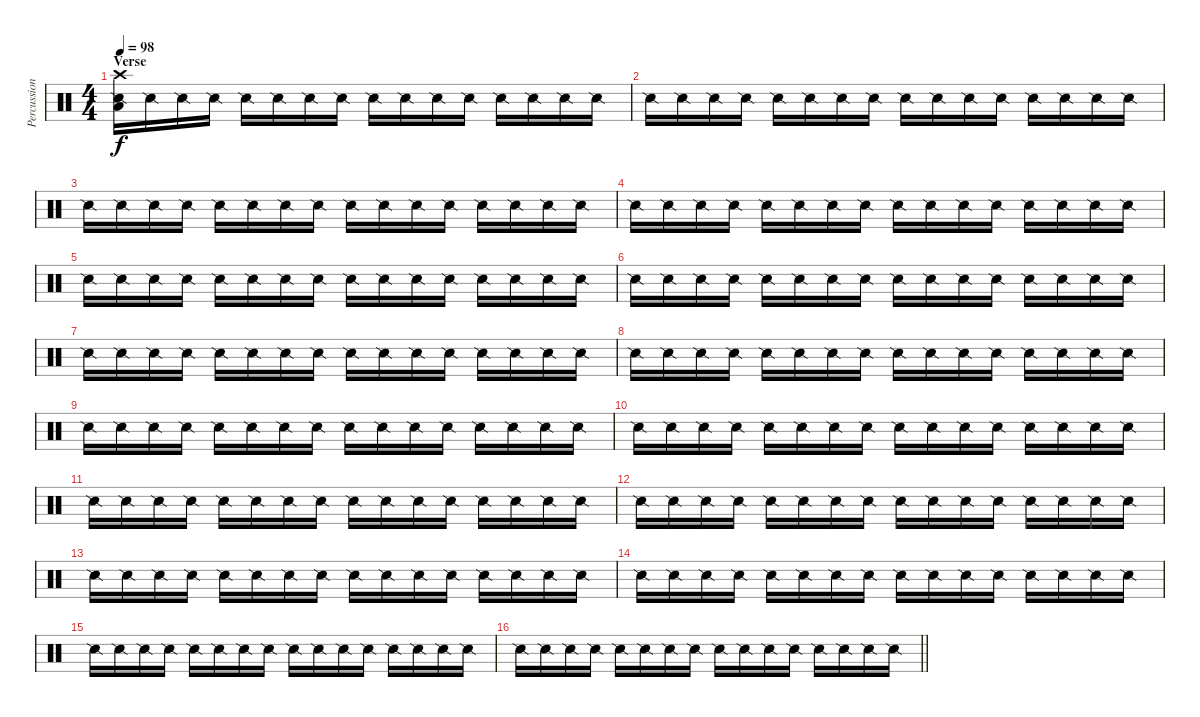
\track ("Percussion" "Percussion") {instrument percussion}
\staff {score}
\articulation defaults
\ts (4 4)
\section ("" "Verse")
\tempo 98
\clef neutral
\ks c
("Crash high (hit)" "Low Floor Tom (hit)" "Snare (side stick) 2").16{dy f} "Snare (side stick) 2".16 "Snare (side stick) 2".16 "Snare (side stick) 2".16 "Snare (side stick) 2".16 "Snare (side stick) 2".16 "Snare (side stick) 2".16 "Snare (side stick) 2".16 "Snare (side stick) 2".16 "Snare (side stick) 2".16 "Snare (side stick) 2".16 "Snare (side stick) 2".16 "Snare (side stick) 2".16 "Snare (side stick) 2".16 "Snare (side stick) 2".16 "Snare (side stick) 2".16 |
"Snare (side stick) 2".16 "Snare (side stick) 2".16 "Snare (side stick) 2".16 "Snare (side stick) 2".16 "Snare (side stick) 2".16 "Snare (side stick) 2".16 "Snare (side stick) 2".16 "Snare (side stick) 2".16 "Snare (side stick) 2".16 "Snare (side stick) 2".16 "Snare (side stick) 2".16 "Snare (side stick) 2".16 "Snare (side stick) 2".16 "Snare (side stick) 2".16 "Snare (side stick) 2".16 "Snare (side stick) 2".16 |
"Snare (side stick) 2".16 "Snare (side stick) 2".16 "Snare (side stick) 2".16 "Snare (side stick) 2".16 "Snare (side stick) 2".16 "Snare (side stick) 2".16 "Snare (side stick) 2".16 "Snare (side stick) 2".16 "Snare (side stick) 2".16 "Snare (side stick) 2".16 "Snare (side stick) 2".16 "Snare (side stick) 2".16 "Snare (side stick) 2".16 "Snare (side stick) 2".16 "Snare (side stick) 2".16 "Snare (side stick) 2".16 |
"Snare (side stick) 2".16 "Snare (side stick) 2".16 "Snare (side stick) 2".16 "Snare (side stick) 2".16 "Snare (side stick) 2".16 "Snare (side stick) 2".16 "Snare (side stick) 2".16 "Snare (side stick) 2".16 "Snare (side stick) 2".16 "Snare (side stick) 2".16 "Snare (side stick) 2".16 "Snare (side stick) 2".16 "Snare (side stick) 2".16 "Snare (side stick) 2".16 "Snare (side stick) 2".16 "Snare (side stick) 2".16 |
"Snare (side stick) 2".16 "Snare (side stick) 2".16 "Snare (side stick) 2".16 "Snare (side stick) 2".16 "Snare (side stick) 2".16 "Snare (side stick) 2".16 "Snare (side stick) 2".16 "Snare (side stick) 2".16 "Snare (side stick) 2".16 "Snare (side stick) 2".16 "Snare (side stick) 2".16 "Snare (side stick) 2".16 "Snare (side stick) 2".16 "Snare (side stick) 2".16 "Snare (side stick) 2".16 "Snare (side stick) 2".16 |
"Snare (side stick) 2".16 "Snare (side stick) 2".16 "Snare (side stick) 2".16 "Snare (side stick) 2".16 "Snare (side stick) 2".16 "Snare (side stick) 2".16 "Snare (side stick) 2".16 "Snare (side stick) 2".16 "Snare (side stick) 2".16 "Snare (side stick) 2".16 "Snare (side stick) 2".16 "Snare (side stick) 2".16 "Snare (side stick) 2".16 "Snare (side stick) 2".16 "Snare (side stick) 2".16 "Snare (side stick) 2".16 |
"Snare (side stick) 2".16 "Snare (side stick) 2".16 "Snare (side stick) 2".16 "Snare (side stick) 2".16 "Snare (side stick) 2".16 "Snare (side stick) 2".16 "Snare (side stick) 2".16 "Snare (side stick) 2".16 "Snare (side stick) 2".16 "Snare (side stick) 2".16 "Snare (side stick) 2".16 "Snare (side stick) 2".16 "Snare (side stick) 2".16 "Snare (side stick) 2".16 "Snare (side stick) 2".16 "Snare (side stick) 2".16 |
"Snare (side stick) 2".16 "Snare (side stick) 2".16 "Snare (side stick) 2".16 "Snare (side stick) 2".16 "Snare (side stick) 2".16 "Snare (side stick) 2".16 "Snare (side stick) 2".16 "Snare (side stick) 2".16 "Snare (side stick) 2".16 "Snare (side stick) 2".16 "Snare (side stick) 2".16 "Snare (side stick) 2".16 "Snare (side stick) 2".16 "Snare (side stick) 2".16 "Snare (side stick) 2".16 "Snare (side stick) 2".16 |
"Snare (side stick) 2".16 "Snare (side stick) 2".16 "Snare (side stick) 2".16 "Snare (side stick) 2".16 "Snare (side stick) 2".16 "Snare (side stick) 2".16 "Snare (side stick) 2".16 "Snare (side stick) 2".16 "Snare (side stick) 2".16 "Snare (side stick) 2".16 "Snare (side stick) 2".16 "Snare (side stick) 2".16 "Snare (side stick) 2".16 "Snare (side stick) 2".16 "Snare (side stick) 2".16 "Snare (side stick) 2".16 |
"Snare (side stick) 2".16 "Snare (side stick) 2".16 "Snare (side stick) 2".16 "Snare (side stick) 2".16 "Snare (side stick) 2".16 "Snare (side stick) 2".16 "Snare (side stick) 2".16 "Snare (side stick) 2".16 "Snare (side stick) 2".16 "Snare (side stick) 2".16 "Snare (side stick) 2".16 "Snare (side stick) 2".16 "Snare (side stick) 2".16 "Snare (side stick) 2".16 "Snare (side stick) 2".16 "Snare (side stick) 2".16 |
"Snare (side stick) 2".16 "Snare (side stick) 2".16 "Snare (side stick) 2".16 "Snare (side stick) 2".16 "Snare (side stick) 2".16 "Snare (side stick) 2".16 "Snare (side stick) 2".16 "Snare (side stick) 2".16 "Snare (side stick) 2".16 "Snare (side stick) 2".16 "Snare (side stick) 2".16 "Snare (side stick) 2".16 "Snare (side stick) 2".16 "Snare (side stick) 2".16 "Snare (side stick) 2".16 "Snare (side stick) 2".16 |
"Snare (side stick) 2".16 "Snare (side stick) 2".16 "Snare (side stick) 2".16 "Snare (side stick) 2".16 "Snare (side stick) 2".16 "Snare (side stick) 2".16 "Snare (side stick) 2".16 "Snare (side stick) 2".16 "Snare (side stick) 2".16 "Snare (side stick) 2".16 "Snare (side stick) 2".16 "Snare (side stick) 2".16 "Snare (side stick) 2".16 "Snare (side stick) 2".16 "Snare (side stick) 2".16 "Snare (side stick) 2".16 |
"Snare (side stick) 2".16 "Snare (side stick) 2".16 "Snare (side stick) 2".16 "Snare (side stick) 2".16 "Snare (side stick) 2".16 "Snare (side stick) 2".16 "Snare (side stick) 2".16 "Snare (side stick) 2".16 "Snare (side stick) 2".16 "Snare (side stick) 2".16 "Snare (side stick) 2".16 "Snare (side stick) 2".16 "Snare (side stick) 2".16 "Snare (side stick) 2".16 "Snare (side stick) 2".16 "Snare (side stick) 2".16 |
"Snare (side stick) 2".16 "Snare (side stick) 2".16 "Snare (side stick) 2".16 "Snare (side stick) 2".16 "Snare (side stick) 2".16 "Snare (side stick) 2".16 "Snare (side stick) 2".16 "Snare (side stick) 2".16 "Snare (side stick) 2".16 "Snare (side stick) 2".16 "Snare (side stick) 2".16 "Snare (side stick) 2".16 "Snare (side stick) 2".16 "Snare (side stick) 2".16 "Snare (side stick) 2".16 "Snare (side stick) 2".16 |
"Snare (side stick) 2".16 "Snare (side stick) 2".16 "Snare (side stick) 2".16 "Snare (side stick) 2".16 "Snare (side stick) 2".16 "Snare (side stick) 2".16 "Snare (side stick) 2".16 "Snare (side stick) 2".16 "Snare (side stick) 2".16 "Snare (side stick) 2".16 "Snare (side stick) 2".16 "Snare (side stick) 2".16 "Snare (side stick) 2".16 "Snare (side stick) 2".16 "Snare (side stick) 2".16 "Snare (side stick) 2".16 |
\barLineRight lightlight "Snare (side stick) 2".16 "Snare (side stick) 2".16 "Snare (side stick) 2".16 "Snare (side stick) 2".16 "Snare (side stick) 2".16 "Snare (side stick) 2".16 "Snare (side stick) 2".16 "Snare (side stick) 2".16 "Snare (side stick) 2".16 "Snare (side stick) 2".16 "Snare (side stick) 2".16 "Snare (side stick) 2".16 "Snare (side stick) 2".16 "Snare (side stick) 2".16 "Snare (side stick) 2".16 "Snare (side stick) 2".16
